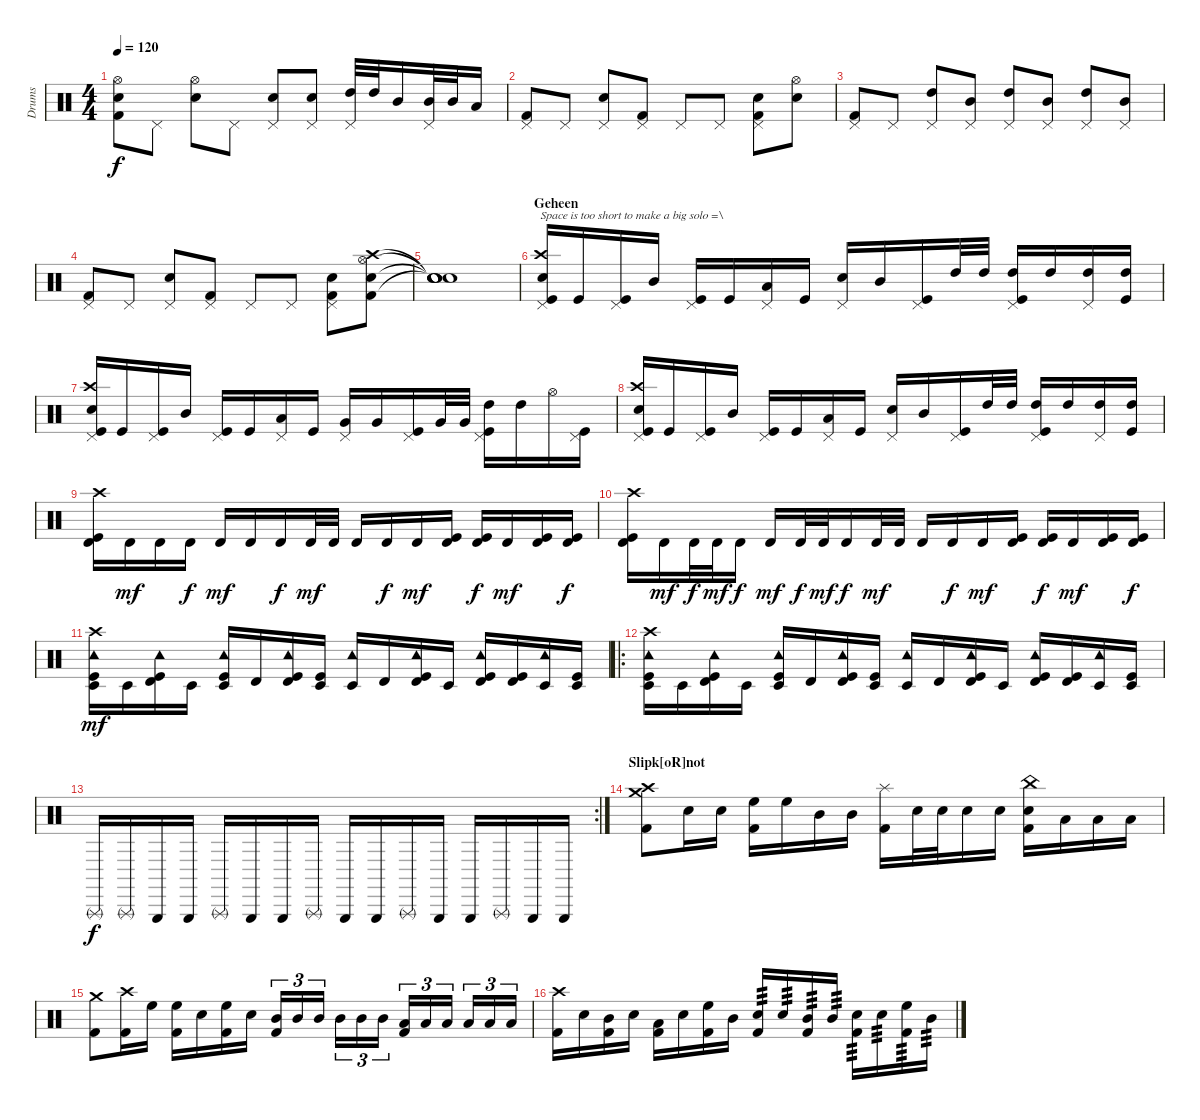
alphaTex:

\track ("Drums" "Drums") {instrument percussion}
\staff {score}
\articulation defaults
\ts (4 4)
\tempo 120
\clef neutral
\ks c
("Hi-Hat (open)" "Electric Snare (hit)" "Kick (hit) 2").8{dy f} "Pedal Hi-Hat (hit)".8 ("Hi-Hat (open)" "Electric Snare (hit)").8 "Pedal Hi-Hat (hit)".8 ("Pedal Hi-Hat (hit)" "Electric Snare (hit)").8 ("Pedal Hi-Hat (hit)" "Electric Snare (hit)").8 ("Pedal Hi-Hat (hit)" "High Tom (hit)").32 "High Tom (hit)".32 "Mid Tom (hit)".16 ("Pedal Hi-Hat (hit)" "Mid Tom (hit)").32 "Mid Tom (hit)".32 "Low Tom (hit)".16 |
("Pedal Hi-Hat (hit)" "Kick (hit) 2").8 "Pedal Hi-Hat (hit)".8 ("Pedal Hi-Hat (hit)" "Electric Snare (hit)").8 ("Pedal Hi-Hat (hit)" "Kick (hit) 2").8 "Pedal Hi-Hat (hit)".8 "Pedal Hi-Hat (hit)".8 ("Pedal Hi-Hat (hit)" "Electric Snare (hit)" "Kick (hit) 2").8 ("Hi-Hat (open)" "Electric Snare (hit)").8 |
("Pedal Hi-Hat (hit)" "Kick (hit) 2").8 "Pedal Hi-Hat (hit)".8 ("Pedal Hi-Hat (hit)" "High Tom (hit)").8 ("Pedal Hi-Hat (hit)" "Mid Tom (hit)").8 ("Pedal Hi-Hat (hit)" "High Tom (hit)").8 ("Pedal Hi-Hat (hit)" "Mid Tom (hit)").8 ("Pedal Hi-Hat (hit)" "High Tom (hit)").8 ("Pedal Hi-Hat (hit)" "Mid Tom (hit)").8 |
("Pedal Hi-Hat (hit)" "Kick (hit) 2").8 "Pedal Hi-Hat (hit)".8 ("Pedal Hi-Hat (hit)" "Electric Snare (hit)").8 ("Pedal Hi-Hat (hit)" "Kick (hit) 2").8 "Pedal Hi-Hat (hit)".8 "Pedal Hi-Hat (hit)".8 ("Pedal Hi-Hat (hit)" "Electric Snare (hit)" "Kick (hit) 2").8 ("Crash high (hit)" "Hi-Hat (open)" "Electric Snare (hit)" "Kick (hit) 2").8 |
("Snare (hit)"{t} "Snare (hit)"{t} "Snare (hit)"{t} "Snare (hit)"{t}).1 |
\section ("" "Geheen")
("Crash high (hit)" "Pedal Hi-Hat (hit)" "Electric Snare (hit)" "Kick (hit)").16{txt "Space is too short to make a big solo =\\"} "Kick (hit)".16 ("Pedal Hi-Hat (hit)" "Kick (hit)").16 "Mid Tom (hit)".16 ("Pedal Hi-Hat (hit)" "Kick (hit)").16 "Kick (hit)".16 ("Pedal Hi-Hat (hit)" "Low Tom (hit)").16 "Kick (hit)".16 ("Pedal Hi-Hat (hit)" "Electric Snare (hit)").16 "Mid Tom (hit)".16 ("Pedal Hi-Hat (hit)" "Kick (hit)").16 "High Tom (hit)".32 "High Tom (hit)".32 ("Pedal Hi-Hat (hit)" "High Tom (hit)" "Kick (hit)").16 "High Tom (hit)".16 ("Pedal Hi-Hat (hit)" "High Tom (hit)").16 ("High Tom (hit)" "Kick (hit)").16 |
("Crash high (hit)" "Pedal Hi-Hat (hit)" "Electric Snare (hit)" "Kick (hit)").16 "Kick (hit)".16 ("Pedal Hi-Hat (hit)" "Kick (hit)").16 "Mid Tom (hit)".16 ("Pedal Hi-Hat (hit)" "Kick (hit)").16 "Kick (hit)".16 ("Pedal Hi-Hat (hit)" "Low Tom (hit)").16 "Kick (hit)".16 ("Pedal Hi-Hat (hit)" "Very Low Tom (hit)").16 "Very Low Tom (hit)".16 ("Pedal Hi-Hat (hit)" "Kick (hit)").16 "Very Low Tom (hit)".32 "Very Low Tom (hit)".32 ("Pedal Hi-Hat (hit)" "High Tom (hit)" "Kick (hit)").16 "High Tom (hit)".16 "Hi-Hat (open)".16 ("Pedal Hi-Hat (hit)" "Kick (hit)").16 |
("Crash high (hit)" "Pedal Hi-Hat (hit)" "Electric Snare (hit)" "Kick (hit)").16 "Kick (hit)".16 ("Pedal Hi-Hat (hit)" "Kick (hit)").16 "Mid Tom (hit)".16 ("Pedal Hi-Hat (hit)" "Kick (hit)").16 "Kick (hit)".16 ("Pedal Hi-Hat (hit)" "Low Tom (hit)").16 "Kick (hit)".16 ("Pedal Hi-Hat (hit)" "Electric Snare (hit)").16 "Mid Tom (hit)".16 ("Pedal Hi-Hat (hit)" "Kick (hit)").16 "High Tom (hit)".32 "High Tom (hit)".32 ("Pedal Hi-Hat (hit)" "High Tom (hit)" "Kick (hit)").16 "High Tom (hit)".16 ("Pedal Hi-Hat (hit)" "High Tom (hit)").16 ("High Tom (hit)" "Kick (hit)").16 |
("Crash high (hit)" "Timbale high (hit)" "Kick (hit)").16 "Timbale high (hit)".16{dy mf} "Timbale high (hit)".16 "Timbale high (hit)".16{dy f} "Timbale high (hit)".16{dy mf} "Timbale high (hit)".16 "Timbale high (hit)".16{dy f} "Timbale high (hit)".32{dy mf} "Timbale high (hit)".32 "Timbale high (hit)".16 "Timbale high (hit)".16{dy f} "Timbale high (hit)".16{dy mf} ("Timbale high (hit)" "Kick (hit)").16 ("Timbale high (hit)" "Kick (hit)").16{dy f} "Timbale high (hit)".16{dy mf} ("Timbale high (hit)" "Kick (hit)").16 ("Timbale high (hit)" "Kick (hit)").16{dy f} |
("Crash high (hit)" "Timbale high (hit)" "Kick (hit)").16 "Timbale high (hit)".16{dy mf} "Timbale high (hit)".32{dy f} "Timbale high (hit)".32{dy mf} "Timbale high (hit)".16{dy f} "Timbale high (hit)".16{dy mf} "Timbale high (hit)".32{dy f} "Timbale high (hit)".32{dy mf} "Timbale high (hit)".16{dy f} "Timbale high (hit)".32{dy mf} "Timbale high (hit)".32 "Timbale high (hit)".16 "Timbale high (hit)".16{dy f} "Timbale high (hit)".16{dy mf} ("Timbale high (hit)" "Kick (hit)").16 ("Timbale high (hit)" "Kick (hit)").16{dy f} "Timbale high (hit)".16{dy mf} ("Timbale high (hit)" "Kick (hit)").16 ("Timbale high (hit)" "Kick (hit)").16{dy f} |
("Tambourine (hit)" "Crash high (hit)" "Timbale low (hit)" "Kick (hit)").16{dy mf} "Timbale low (hit)".16 ("Tambourine (hit)" "Timbale high (hit)" "Kick (hit)").16 "Timbale low (hit)".16 ("Tambourine (hit)" "Timbale low (hit)" "Kick (hit)").16 "Timbale high (hit)".16 ("Tambourine (hit)" "Timbale high (hit)" "Kick (hit)").16 ("Timbale low (hit)" "Kick (hit)").16 ("Tambourine (hit)" "Timbale low (hit)").16 "Timbale high (hit)".16 ("Tambourine (hit)" "Timbale high (hit)" "Kick (hit)").16 "Timbale low (hit)".16 ("Tambourine (hit)" "Timbale high (hit)" "Kick (hit)").16 ("Timbale high (hit)" "Kick (hit)").16 ("Tambourine (hit)" "Timbale low (hit)").16 ("Timbale low (hit)" "Kick (hit)").16 |
\ro
("Tambourine (hit)" "Crash high (hit)" "Timbale low (hit)" "Kick (hit)").16 "Timbale low (hit)".16 ("Tambourine (hit)" "Timbale high (hit)" "Kick (hit)").16 "Timbale low (hit)".16 ("Tambourine (hit)" "Timbale low (hit)" "Kick (hit)").16 "Timbale high (hit)".16 ("Tambourine (hit)" "Timbale high (hit)" "Kick (hit)").16 ("Timbale low (hit)" "Kick (hit)").16 ("Tambourine (hit)" "Timbale low (hit)").16 "Timbale high (hit)".16 ("Tambourine (hit)" "Timbale high (hit)" "Kick (hit)").16 "Timbale low (hit)".16 ("Tambourine (hit)" "Timbale high (hit)" "Kick (hit)").16 ("Timbale high (hit)" "Kick (hit)").16 ("Tambourine (hit)" "Timbale low (hit)").16 ("Timbale low (hit)" "Kick (hit)").16 |
\rc 2 "Triangle (rnute)".16{dy f} "Triangle (rnute)".16 "Triangle (hit)".16 "Triangle (hit)".16 "Triangle (rnute)".16 "Triangle (hit)".16 "Triangle (hit)".16 "Triangle (rnute)".16 "Triangle (hit)".16 "Triangle (hit)".16 "Triangle (rnute)".16 "Triangle (hit)".16 "Triangle (hit)".16 "Triangle (rnute)".16 "Triangle (hit)".16 "Triangle (hit)".16
|
\section ("" "Slipk[oR]not")
("Crash high (hit)" "Crash medium (hit)" "Kick (hit) 2").8 "Electric Snare (hit)".16 "Electric Snare (hit)".16 ("High Floor Tom (hit)" "Kick (hit) 2").16 "High Floor Tom (hit)".16 "Mid Tom (hit)".16 "Mid Tom (hit)".16 ("Splash (hit)" "Kick (hit) 2").16 "Electric Snare (hit)".32 "Electric Snare (hit)".32 "Electric Snare (hit)".16 "Electric Snare (hit)".16 ("China (hit)" "Electric Snare (hit)" "Kick (hit) 2").16 "Low Tom (hit)".16 "Low Tom (hit)".16 "Low Floor Tom (hit)".16 |
("Crash medium (hit)" "Kick (hit) 2").8 ("Crash high (hit)" "Kick (hit) 2").16 "High Floor Tom (hit)".16 ("High Floor Tom (hit)" "Kick (hit) 2").16 "Electric Snare (hit)".16 ("High Floor Tom (hit)" "Kick (hit) 2").16 "Electric Snare (hit)".16 ("Mid Tom (hit)" "Kick (hit) 2").16{tu (3 2)} "Mid Tom (hit)".16{tu (3 2)} "Mid Tom (hit)".16{tu (3 2)} "Mid Tom (hit)".16{tu (3 2)} "Mid Tom (hit)".16{tu (3 2)} "Mid Tom (hit)".16{tu (3 2)} ("Low Tom (hit)" "Kick (hit) 2").16{tu (3 2)} "Low Tom (hit)".16{tu (3 2)} "Low Tom (hit)".16{tu (3 2)} "Low Tom (hit)".16{tu (3 2)} "Low Tom (hit)".16{tu (3 2)} "Low Tom (hit)".16{tu (3 2)} |
("Crash high (hit)" "Kick (hit) 2").16 "Electric Snare (hit)".16 ("Mid Tom (hit)" "Kick (hit) 2").16 "Electric Snare (hit)".16 ("Low Tom (hit)" "Kick (hit) 2").16 "Electric Snare (hit)".16 ("High Floor Tom (hit)" "Kick (hit) 2").16 "Mid Tom (hit)".16 ("Electric Snare (hit)" "Kick (hit) 2").16{tp 3} "Electric Snare (hit)".16{tp 3} ("Mid Tom (hit)" "Kick (hit) 2").16{tp 3} "Mid Tom (hit)".16{tp 3} ("Electric Snare (hit)" "Kick (hit) 2").16{tp 3} "Electric Snare (hit)".16{tp 3} ("High Floor Tom (hit)" "Kick (hit) 2").16{tp 3} "Mid Tom (hit)".16{tp 3}
